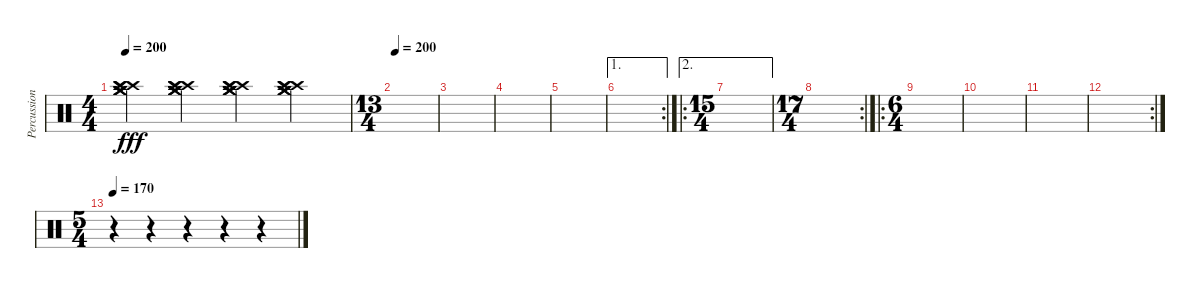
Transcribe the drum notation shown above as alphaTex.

\track ("Percussion" "Percussion") {instrument percussion}
\staff {score}
\articulation defaults
\ts (4 4)
\tempo 200
\clef neutral
\ks c
("Crash high (hit)" "Crash high (hit)" "Crash high (hit)" "Crash medium (hit)" "Crash medium (hit)" "Crash medium (hit)").4{dy fff} ("Crash high (hit)" "Crash high (hit)" "Crash high (hit)" "Crash medium (hit)" "Crash medium (hit)" "Crash medium (hit)").4 ("Crash high (hit)" "Crash high (hit)" "Crash high (hit)" "Crash medium (hit)" "Crash medium (hit)" "Crash medium (hit)").4 ("Crash high (hit)" "Crash high (hit)" "Crash high (hit)" "Crash medium (hit)" "Crash medium (hit)" "Crash medium (hit)").4 |
\ts (13 4)
\tempo 200
|
|
|
|
\ae 1
\rc 2
|
\ae 2
\ro
\ts (15 4)
|
\rc 2
\ts (17 4)
|
\ro
\ts (6 4)
|
|
|
\rc 2
|
\ts (5 4)
\tempo 170
r.4 r.4 r.4 r.4 r.4
